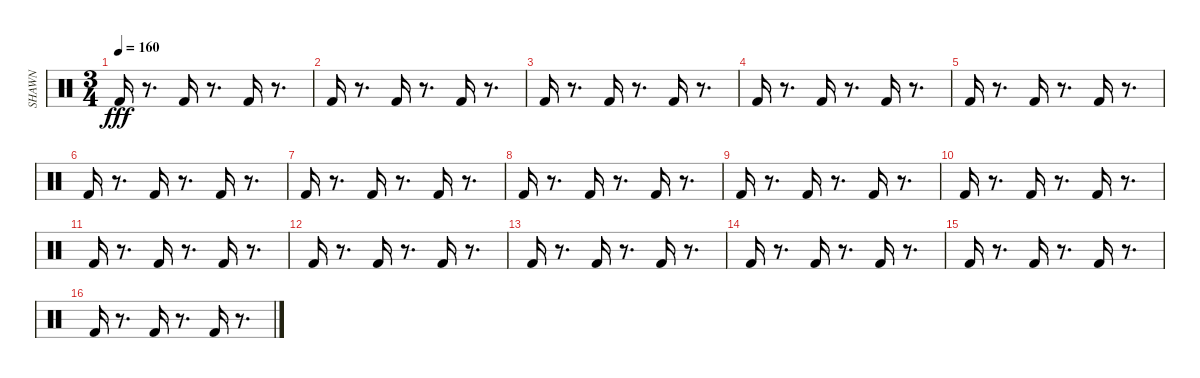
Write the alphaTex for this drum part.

\track ("SHAWN" "SHAWN") {instrument percussion}
\staff {score}
\articulation defaults
\ts (3 4)
\tempo 160
\clef neutral
\ks c "Kick (hit) 2".16{dy fff}
r.8{d} "Kick (hit) 2".16 r.8{d} "Kick (hit) 2".16 r.8{d} |
"Kick (hit) 2".16 r.8{d} "Kick (hit) 2".16 r.8{d} "Kick (hit) 2".16 r.8{d} |
"Kick (hit) 2".16 r.8{d} "Kick (hit) 2".16 r.8{d} "Kick (hit) 2".16 r.8{d} |
"Kick (hit) 2".16 r.8{d} "Kick (hit) 2".16 r.8{d} "Kick (hit) 2".16 r.8{d} |
"Kick (hit) 2".16 r.8{d} "Kick (hit) 2".16 r.8{d} "Kick (hit) 2".16 r.8{d} |
"Kick (hit) 2".16 r.8{d} "Kick (hit) 2".16 r.8{d} "Kick (hit) 2".16 r.8{d} |
"Kick (hit) 2".16 r.8{d} "Kick (hit) 2".16 r.8{d} "Kick (hit) 2".16 r.8{d} |
"Kick (hit) 2".16 r.8{d} "Kick (hit) 2".16 r.8{d} "Kick (hit) 2".16 r.8{d} |
"Kick (hit) 2".16 r.8{d} "Kick (hit) 2".16 r.8{d} "Kick (hit) 2".16 r.8{d} |
"Kick (hit) 2".16 r.8{d} "Kick (hit) 2".16 r.8{d} "Kick (hit) 2".16 r.8{d} |
"Kick (hit) 2".16 r.8{d} "Kick (hit) 2".16 r.8{d} "Kick (hit) 2".16 r.8{d} |
"Kick (hit) 2".16 r.8{d} "Kick (hit) 2".16 r.8{d} "Kick (hit) 2".16 r.8{d} |
"Kick (hit) 2".16 r.8{d} "Kick (hit) 2".16 r.8{d} "Kick (hit) 2".16 r.8{d} |
"Kick (hit) 2".16 r.8{d} "Kick (hit) 2".16 r.8{d} "Kick (hit) 2".16 r.8{d} |
"Kick (hit) 2".16 r.8{d} "Kick (hit) 2".16 r.8{d} "Kick (hit) 2".16 r.8{d} |
"Kick (hit) 2".16 r.8{d} "Kick (hit) 2".16 r.8{d} "Kick (hit) 2".16 r.8{d}
